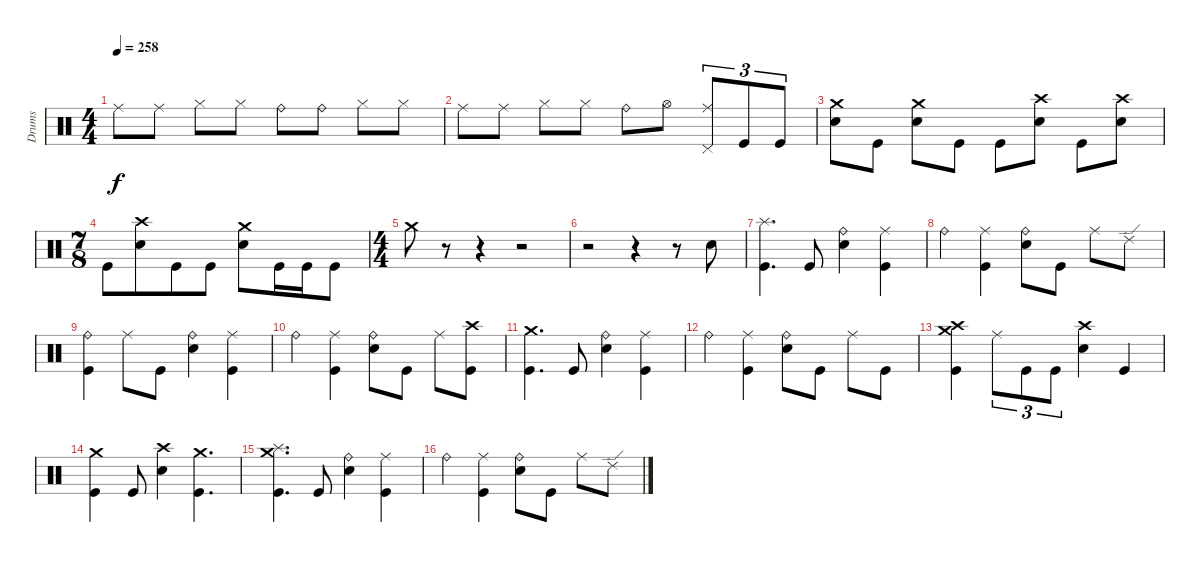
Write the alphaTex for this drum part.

\track ("Drums" "Drums") {instrument percussion}
\staff {score}
\articulation defaults
\ts (4 4)
\tempo 258
\clef neutral
\ks c "Ride (middle)".8{dy f} "Ride (middle)".8 "Hi-Hat (closed)".8 "Hi-Hat (closed)".8 "Ride (bell)".8 "Ride (bell)".8 "Hi-Hat (closed)".8 "Hi-Hat (closed)".8
|
"Ride (middle)".8 "Ride (middle)".8 "Hi-Hat (closed)".8 "Hi-Hat (closed)".8 "Ride (bell)".8 "Hi-Hat (open)".8 ("Pedal Hi-Hat (hit)" "Ride (middle)").8{tu (3 2)} "Kick (hit)".8{tu (3 2)} "Kick (hit)".8{tu (3 2)} |
("Snare (hit) 2" "Crash medium (hit)").8 "Kick (hit)".8 ("Snare (hit) 2" "Crash medium (hit)").8 "Kick (hit)".8 "Kick (hit)".8 ("Snare (hit) 2" "Crash high (hit)").8 "Kick (hit)".8 ("Snare (hit) 2" "Crash high (hit)").8 |
\ts (7 8)
"Kick (hit)".8 ("Snare (hit) 2" "Crash high (hit)").8 "Kick (hit)".8 "Kick (hit)".8 ("Snare (hit) 2" "Crash medium (hit)").8 "Kick (hit)".16 "Kick (hit)".16 "Kick (hit)".8 |
\ts (4 4)
"Crash medium (hit)".8 r.8 r.4 r.2 |
r.2 r.4 r.8 "Snare (hit) 2".8 |
("Splash (hit)" "Kick (hit)").4{d} "Kick (hit)".8 ("Snare (hit) 2" "Ride (bell)").4 ("Kick (hit)" "Ride (middle)").4 |
"Ride (bell)".4 ("Kick (hit)" "Ride (middle)").4 ("Snare (hit) 2" "Ride (bell)").8 "Kick (hit)".8 "Ride (middle)".8 "Ride (edge) 2".8 |
("Kick (hit)" "Ride (bell)").4 "Ride (middle)".8 "Kick (hit)".8 ("Snare (hit) 2" "Ride (bell)").4 ("Kick (hit)" "Ride (middle)").4 |
"Ride (bell)".4 ("Kick (hit)" "Ride (middle)").4 ("Snare (hit) 2" "Ride (bell)").8 "Kick (hit)".8 "Ride (middle)".8 ("Crash high (hit)" "Kick (hit)").8 |
("Kick (hit)" "Crash medium (hit)").4{d} "Kick (hit)".8 ("Snare (hit) 2" "Ride (bell)").4 ("Kick (hit)" "Ride (middle)").4 |
"Ride (bell)".4 ("Kick (hit)" "Ride (middle)").4 ("Snare (hit) 2" "Ride (bell)").8 "Kick (hit)".8 "Ride (middle)".8 "Kick (hit)".8 |
("Crash medium (hit)" "Kick (hit)" "Crash high (hit)").4 "Ride (middle)".8{tu (3 2)} "Kick (hit)".8{tu (3 2)} "Kick (hit)".8{tu (3 2)} ("Snare (hit) 2" "Crash high (hit)").4 "Kick (hit)".4 |
("Crash medium (hit)" "Kick (hit)").4 "Kick (hit)".8 ("Snare (hit) 2" "Crash high (hit)").4 ("Crash medium (hit)" "Kick (hit)").4{d} |
("Splash (hit)" "Kick (hit)" "Crash medium (hit)").4{d} "Kick (hit)".8 ("Snare (hit) 2" "Ride (bell)").4 ("Kick (hit)" "Ride (middle)").4 |
"Ride (bell)".4 ("Kick (hit)" "Ride (middle)").4 ("Snare (hit) 2" "Ride (bell)").8 "Kick (hit)".8 "Ride (middle)".8 "Ride (edge) 2".8
